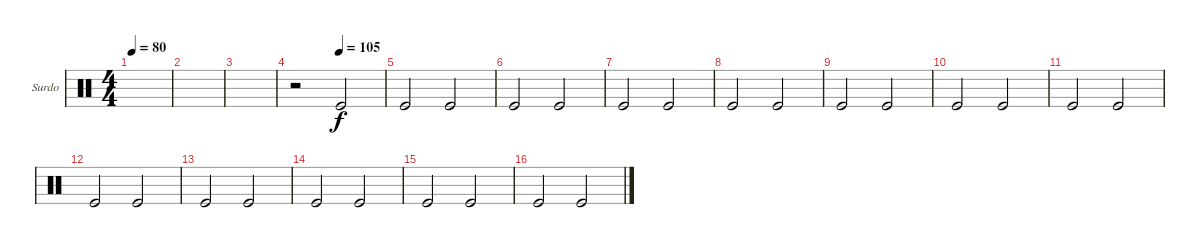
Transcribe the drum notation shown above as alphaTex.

\bracketExtendMode groupsimilarinstruments
\firstSystemTrackNameOrientation horizontal
\otherSystemsTrackNameOrientation horizontal
\track ("Surdo" "Surdo") {instrument percussion}
\staff {score}
\articulation defaults
\ts (4 4)
\tempo 80
\clef neutral
\scale
0.333333
\ks c
|
\scale
0.333333 |
\scale
0.333333 |
\tempo (105 0.5)
\scale
0.333333 r.2 "Kick (hit)".2 |
\scale
0.333333 "Kick (hit)".2 "Kick (hit)".2 |
\scale
0.333333 "Kick (hit)".2 "Kick (hit)".2 |
\scale
0.333333 "Kick (hit)".2 "Kick (hit)".2 |
\scale
0.333333 "Kick (hit)".2 "Kick (hit)".2 |
\scale
0.333333 "Kick (hit)".2 "Kick (hit)".2 |
\scale
0.333333 "Kick (hit)".2 "Kick (hit)".2 |
\scale
0.333333 "Kick (hit)".2 "Kick (hit)".2 |
\scale
0.333333 "Kick (hit)".2 "Kick (hit)".2 |
\scale
0.333333 "Kick (hit)".2 "Kick (hit)".2 |
\scale
0.333333 "Kick (hit)".2 "Kick (hit)".2 |
\scale
0.333333 "Kick (hit)".2 "Kick (hit)".2 |
\scale
0.333333 "Kick (hit)".2 "Kick (hit)".2
